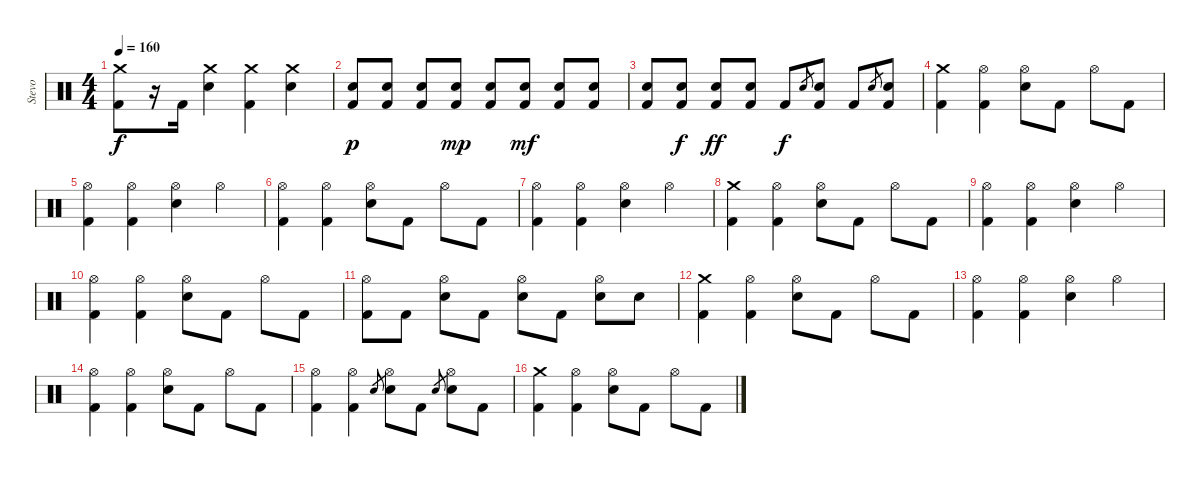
\track ("Stevo" "Stevo") {instrument percussion}
\staff {score}
\articulation defaults
\ts (4 4)
\tempo 160
\clef neutral
\ks c
("Crash medium (hit)" "Kick (hit) 2").8{dy f} r.16 "Kick (hit) 2".16 ("Crash medium (hit)" "Electric Snare (hit)").4 ("Crash medium (hit)" "Kick (hit) 2").4 ("Crash medium (hit)" "Electric Snare (hit)").4 |
("Electric Snare (hit)" "Kick (hit) 2").8{dy p} ("Electric Snare (hit)" "Kick (hit) 2").8 ("Electric Snare (hit)" "Kick (hit) 2").8 ("Electric Snare (hit)" "Kick (hit) 2").8{dy mp} ("Electric Snare (hit)" "Kick (hit) 2").8 ("Electric Snare (hit)" "Kick (hit) 2").8{dy mf} ("Electric Snare (hit)" "Kick (hit) 2").8 ("Electric Snare (hit)" "Kick (hit) 2").8 |
("Electric Snare (hit)" "Kick (hit) 2").8 ("Electric Snare (hit)" "Kick (hit) 2").8{dy f} ("Electric Snare (hit)" "Kick (hit) 2").8{dy ff} ("Electric Snare (hit)" "Kick (hit) 2").8 "Kick (hit) 2".8{dy f} "Electric Snare (hit)".8{gr} ("Electric Snare (hit)" "Kick (hit) 2").8 "Kick (hit) 2".8 "Electric Snare (hit)".8{gr} ("Electric Snare (hit)" "Kick (hit) 2").8 |
("Crash medium (hit)" "Kick (hit) 2").4 ("Hi-Hat (open)" "Kick (hit) 2").4 ("Electric Snare (hit)" "Hi-Hat (open)").8 "Kick (hit) 2".8 "Hi-Hat (open)".8 "Kick (hit) 2".8 |
("Hi-Hat (open)" "Kick (hit) 2").4 ("Hi-Hat (open)" "Kick (hit) 2").4 ("Electric Snare (hit)" "Hi-Hat (open)").4 "Hi-Hat (open)".4 |
("Hi-Hat (open)" "Kick (hit) 2").4 ("Hi-Hat (open)" "Kick (hit) 2").4 ("Electric Snare (hit)" "Hi-Hat (open)").8 "Kick (hit) 2".8 "Hi-Hat (open)".8 "Kick (hit) 2".8 |
("Hi-Hat (open)" "Kick (hit) 2").4 ("Hi-Hat (open)" "Kick (hit) 2").4 ("Electric Snare (hit)" "Hi-Hat (open)").4 "Hi-Hat (open)".4 |
("Crash medium (hit)" "Kick (hit) 2").4 ("Hi-Hat (open)" "Kick (hit) 2").4 ("Electric Snare (hit)" "Hi-Hat (open)").8 "Kick (hit) 2".8 "Hi-Hat (open)".8 "Kick (hit) 2".8 |
("Hi-Hat (open)" "Kick (hit) 2").4 ("Hi-Hat (open)" "Kick (hit) 2").4 ("Electric Snare (hit)" "Hi-Hat (open)").4 "Hi-Hat (open)".4 |
("Hi-Hat (open)" "Kick (hit) 2").4 ("Hi-Hat (open)" "Kick (hit) 2").4 ("Electric Snare (hit)" "Hi-Hat (open)").8 "Kick (hit) 2".8 "Hi-Hat (open)".8 "Kick (hit) 2".8 |
("Hi-Hat (open)" "Kick (hit) 2").8 "Kick (hit) 2".8 ("Hi-Hat (open)" "Electric Snare (hit)").8 "Kick (hit) 2".8 ("Hi-Hat (open)" "Electric Snare (hit)").8 "Kick (hit) 2".8 ("Hi-Hat (open)" "Electric Snare (hit)").8 "Electric Snare (hit)".8 |
("Crash medium (hit)" "Kick (hit) 2").4 ("Hi-Hat (open)" "Kick (hit) 2").4 ("Electric Snare (hit)" "Hi-Hat (open)").8 "Kick (hit) 2".8 "Hi-Hat (open)".8 "Kick (hit) 2".8 |
("Hi-Hat (open)" "Kick (hit) 2").4 ("Hi-Hat (open)" "Kick (hit) 2").4 ("Electric Snare (hit)" "Hi-Hat (open)").4 "Hi-Hat (open)".4 |
("Hi-Hat (open)" "Kick (hit) 2").4 ("Hi-Hat (open)" "Kick (hit) 2").4 ("Electric Snare (hit)" "Hi-Hat (open)").8 "Kick (hit) 2".8 "Hi-Hat (open)".8 "Kick (hit) 2".8 |
("Hi-Hat (open)" "Kick (hit) 2").4 ("Hi-Hat (open)" "Kick (hit) 2").4 "Electric Snare (hit)".8{gr} ("Electric Snare (hit)" "Hi-Hat (open)").8 "Kick (hit) 2".8 "Electric Snare (hit)".8{gr} ("Hi-Hat (open)" "Electric Snare (hit)").8 "Kick (hit) 2".8 |
("Crash medium (hit)" "Kick (hit) 2").4 ("Hi-Hat (open)" "Kick (hit) 2").4 ("Electric Snare (hit)" "Hi-Hat (open)").8 "Kick (hit) 2".8 "Hi-Hat (open)".8 "Kick (hit) 2".8
